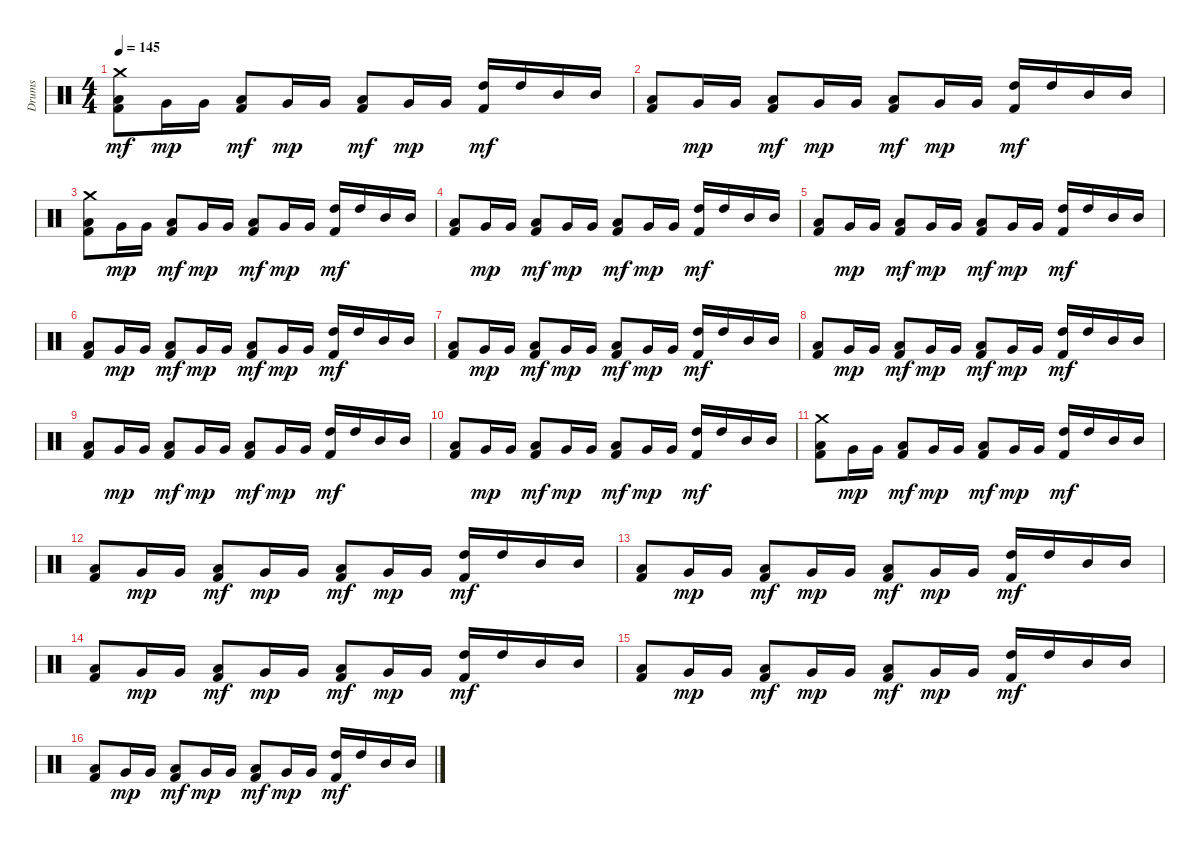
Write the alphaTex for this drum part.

\track ("Drums" "Drums") {instrument percussion}
\staff {score}
\articulation defaults
\ts (4 4)
\tempo 145
\clef neutral
\ks c
("Crash medium (hit)" "Low Tom (hit)" "Kick (hit) 2").8{dy mf} "Very Low Tom (hit)".16{dy mp} "Very Low Tom (hit)".16 ("Low Tom (hit)" "Kick (hit) 2").8{dy mf} "Very Low Tom (hit)".16{dy mp} "Very Low Tom (hit)".16 ("Low Tom (hit)" "Kick (hit) 2").8{dy mf} "Very Low Tom (hit)".16{dy mp} "Very Low Tom (hit)".16 ("High Tom (hit)" "Kick (hit) 2").16{dy mf} "High Tom (hit)".16 "Mid Tom (hit)".16 "Mid Tom (hit)".16 |
("Low Tom (hit)" "Kick (hit) 2").8 "Very Low Tom (hit)".16{dy mp} "Very Low Tom (hit)".16 ("Low Tom (hit)" "Kick (hit) 2").8{dy mf} "Very Low Tom (hit)".16{dy mp} "Very Low Tom (hit)".16 ("Low Tom (hit)" "Kick (hit) 2").8{dy mf} "Very Low Tom (hit)".16{dy mp} "Very Low Tom (hit)".16 ("High Tom (hit)" "Kick (hit) 2").16{dy mf} "High Tom (hit)".16 "Mid Tom (hit)".16 "Mid Tom (hit)".16 |
("Crash medium (hit)" "Low Tom (hit)" "Kick (hit) 2").8 "Very Low Tom (hit)".16{dy mp} "Very Low Tom (hit)".16 ("Low Tom (hit)" "Kick (hit) 2").8{dy mf} "Very Low Tom (hit)".16{dy mp} "Very Low Tom (hit)".16 ("Low Tom (hit)" "Kick (hit) 2").8{dy mf} "Very Low Tom (hit)".16{dy mp} "Very Low Tom (hit)".16 ("High Tom (hit)" "Kick (hit) 2").16{dy mf} "High Tom (hit)".16 "Mid Tom (hit)".16 "Mid Tom (hit)".16 |
("Low Tom (hit)" "Kick (hit) 2").8 "Very Low Tom (hit)".16{dy mp} "Very Low Tom (hit)".16 ("Low Tom (hit)" "Kick (hit) 2").8{dy mf} "Very Low Tom (hit)".16{dy mp} "Very Low Tom (hit)".16 ("Low Tom (hit)" "Kick (hit) 2").8{dy mf} "Very Low Tom (hit)".16{dy mp} "Very Low Tom (hit)".16 ("High Tom (hit)" "Kick (hit) 2").16{dy mf} "High Tom (hit)".16 "Mid Tom (hit)".16 "Mid Tom (hit)".16 |
("Low Tom (hit)" "Kick (hit) 2").8 "Very Low Tom (hit)".16{dy mp} "Very Low Tom (hit)".16 ("Low Tom (hit)" "Kick (hit) 2").8{dy mf} "Very Low Tom (hit)".16{dy mp} "Very Low Tom (hit)".16 ("Low Tom (hit)" "Kick (hit) 2").8{dy mf} "Very Low Tom (hit)".16{dy mp} "Very Low Tom (hit)".16 ("High Tom (hit)" "Kick (hit) 2").16{dy mf} "High Tom (hit)".16 "Mid Tom (hit)".16 "Mid Tom (hit)".16 |
("Low Tom (hit)" "Kick (hit) 2").8 "Very Low Tom (hit)".16{dy mp} "Very Low Tom (hit)".16 ("Low Tom (hit)" "Kick (hit) 2").8{dy mf} "Very Low Tom (hit)".16{dy mp} "Very Low Tom (hit)".16 ("Low Tom (hit)" "Kick (hit) 2").8{dy mf} "Very Low Tom (hit)".16{dy mp} "Very Low Tom (hit)".16 ("High Tom (hit)" "Kick (hit) 2").16{dy mf} "High Tom (hit)".16 "Mid Tom (hit)".16 "Mid Tom (hit)".16 |
("Low Tom (hit)" "Kick (hit) 2").8 "Very Low Tom (hit)".16{dy mp} "Very Low Tom (hit)".16 ("Low Tom (hit)" "Kick (hit) 2").8{dy mf} "Very Low Tom (hit)".16{dy mp} "Very Low Tom (hit)".16 ("Low Tom (hit)" "Kick (hit) 2").8{dy mf} "Very Low Tom (hit)".16{dy mp} "Very Low Tom (hit)".16 ("High Tom (hit)" "Kick (hit) 2").16{dy mf} "High Tom (hit)".16 "Mid Tom (hit)".16 "Mid Tom (hit)".16 |
("Low Tom (hit)" "Kick (hit) 2").8 "Very Low Tom (hit)".16{dy mp} "Very Low Tom (hit)".16 ("Low Tom (hit)" "Kick (hit) 2").8{dy mf} "Very Low Tom (hit)".16{dy mp} "Very Low Tom (hit)".16 ("Low Tom (hit)" "Kick (hit) 2").8{dy mf} "Very Low Tom (hit)".16{dy mp} "Very Low Tom (hit)".16 ("High Tom (hit)" "Kick (hit) 2").16{dy mf} "High Tom (hit)".16 "Mid Tom (hit)".16 "Mid Tom (hit)".16 |
("Low Tom (hit)" "Kick (hit) 2").8 "Very Low Tom (hit)".16{dy mp} "Very Low Tom (hit)".16 ("Low Tom (hit)" "Kick (hit) 2").8{dy mf} "Very Low Tom (hit)".16{dy mp} "Very Low Tom (hit)".16 ("Low Tom (hit)" "Kick (hit) 2").8{dy mf} "Very Low Tom (hit)".16{dy mp} "Very Low Tom (hit)".16 ("High Tom (hit)" "Kick (hit) 2").16{dy mf} "High Tom (hit)".16 "Mid Tom (hit)".16 "Mid Tom (hit)".16 |
("Low Tom (hit)" "Kick (hit) 2").8 "Very Low Tom (hit)".16{dy mp} "Very Low Tom (hit)".16 ("Low Tom (hit)" "Kick (hit) 2").8{dy mf} "Very Low Tom (hit)".16{dy mp} "Very Low Tom (hit)".16 ("Low Tom (hit)" "Kick (hit) 2").8{dy mf} "Very Low Tom (hit)".16{dy mp} "Very Low Tom (hit)".16 ("High Tom (hit)" "Kick (hit) 2").16{dy mf} "High Tom (hit)".16 "Mid Tom (hit)".16 "Mid Tom (hit)".16 |
("Crash medium (hit)" "Low Tom (hit)" "Kick (hit) 2").8 "Very Low Tom (hit)".16{dy mp} "Very Low Tom (hit)".16 ("Low Tom (hit)" "Kick (hit) 2").8{dy mf} "Very Low Tom (hit)".16{dy mp} "Very Low Tom (hit)".16 ("Low Tom (hit)" "Kick (hit) 2").8{dy mf} "Very Low Tom (hit)".16{dy mp} "Very Low Tom (hit)".16 ("High Tom (hit)" "Kick (hit) 2").16{dy mf} "High Tom (hit)".16 "Mid Tom (hit)".16 "Mid Tom (hit)".16 |
("Low Tom (hit)" "Kick (hit) 2").8 "Very Low Tom (hit)".16{dy mp} "Very Low Tom (hit)".16 ("Low Tom (hit)" "Kick (hit) 2").8{dy mf} "Very Low Tom (hit)".16{dy mp} "Very Low Tom (hit)".16 ("Low Tom (hit)" "Kick (hit) 2").8{dy mf} "Very Low Tom (hit)".16{dy mp} "Very Low Tom (hit)".16 ("High Tom (hit)" "Kick (hit) 2").16{dy mf} "High Tom (hit)".16 "Mid Tom (hit)".16 "Mid Tom (hit)".16 |
("Low Tom (hit)" "Kick (hit) 2").8 "Very Low Tom (hit)".16{dy mp} "Very Low Tom (hit)".16 ("Low Tom (hit)" "Kick (hit) 2").8{dy mf} "Very Low Tom (hit)".16{dy mp} "Very Low Tom (hit)".16 ("Low Tom (hit)" "Kick (hit) 2").8{dy mf} "Very Low Tom (hit)".16{dy mp} "Very Low Tom (hit)".16 ("High Tom (hit)" "Kick (hit) 2").16{dy mf} "High Tom (hit)".16 "Mid Tom (hit)".16 "Mid Tom (hit)".16 |
("Low Tom (hit)" "Kick (hit) 2").8 "Very Low Tom (hit)".16{dy mp} "Very Low Tom (hit)".16 ("Low Tom (hit)" "Kick (hit) 2").8{dy mf} "Very Low Tom (hit)".16{dy mp} "Very Low Tom (hit)".16 ("Low Tom (hit)" "Kick (hit) 2").8{dy mf} "Very Low Tom (hit)".16{dy mp} "Very Low Tom (hit)".16 ("High Tom (hit)" "Kick (hit) 2").16{dy mf} "High Tom (hit)".16 "Mid Tom (hit)".16 "Mid Tom (hit)".16 |
("Low Tom (hit)" "Kick (hit) 2").8 "Very Low Tom (hit)".16{dy mp} "Very Low Tom (hit)".16 ("Low Tom (hit)" "Kick (hit) 2").8{dy mf} "Very Low Tom (hit)".16{dy mp} "Very Low Tom (hit)".16 ("Low Tom (hit)" "Kick (hit) 2").8{dy mf} "Very Low Tom (hit)".16{dy mp} "Very Low Tom (hit)".16 ("High Tom (hit)" "Kick (hit) 2").16{dy mf} "High Tom (hit)".16 "Mid Tom (hit)".16 "Mid Tom (hit)".16 |
("Low Tom (hit)" "Kick (hit) 2").8 "Very Low Tom (hit)".16{dy mp} "Very Low Tom (hit)".16 ("Low Tom (hit)" "Kick (hit) 2").8{dy mf} "Very Low Tom (hit)".16{dy mp} "Very Low Tom (hit)".16 ("Low Tom (hit)" "Kick (hit) 2").8{dy mf} "Very Low Tom (hit)".16{dy mp} "Very Low Tom (hit)".16 ("High Tom (hit)" "Kick (hit) 2").16{dy mf} "High Tom (hit)".16 "Mid Tom (hit)".16 "Mid Tom (hit)".16
